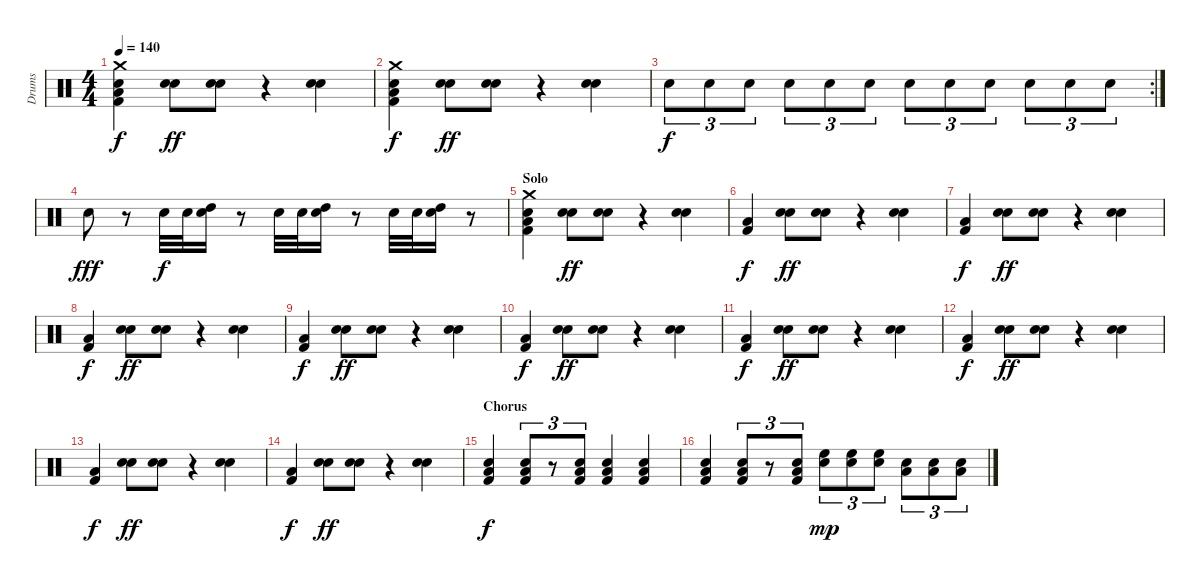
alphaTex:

\track ("Drums" "Drums") {instrument percussion}
\staff {score}
\articulation defaults
\ts (4 4)
\tempo 140
\clef neutral
\ks c
("Kick (hit) 2" "Snare (hit) 2" "Low Floor Tom (hit)" "Crash medium (hit)").4{dy f} ("Snare (hit) 2" "Hand Clap (hit)").8{dy ff} ("Snare (hit) 2" "Hand Clap (hit)").8 r.4 ("Snare (hit) 2" "Hand Clap (hit)").4 |
("Kick (hit) 2" "Snare (hit) 2" "Low Floor Tom (hit)" "Crash medium (hit)").4{dy f} ("Snare (hit) 2" "Hand Clap (hit)").8{dy ff} ("Snare (hit) 2" "Hand Clap (hit)").8 r.4 ("Snare (hit) 2" "Hand Clap (hit)").4 |
\rc 2 "Snare (hit) 2".8{tu (3 2) dy f} "Snare (hit) 2".8{tu (3 2)} "Snare (hit) 2".8{tu (3 2)} "Snare (hit) 2".8{tu (3 2)} "Snare (hit) 2".8{tu (3 2)} "Snare (hit) 2".8{tu (3 2)} "Snare (hit) 2".8{tu (3 2)} "Snare (hit) 2".8{tu (3 2)} "Snare (hit) 2".8{tu (3 2)} "Snare (hit) 2".8{tu (3 2)} "Snare (hit) 2".8{tu (3 2)} "Snare (hit) 2".8{tu (3 2)}
|
"Snare (hit) 2".8{dy fff} r.8 "Snare (hit) 2".32{dy f} "Snare (hit) 2".32 ("Snare (hit) 2" "High Tom (hit)").16 r.8 "Snare (hit) 2".32 "Snare (hit) 2".32 ("Snare (hit) 2" "High Tom (hit)").16 r.8 "Snare (hit) 2".32 "Snare (hit) 2".32 ("Snare (hit) 2" "High Tom (hit)").16 r.8 |
\section ("" "Solo")
("Kick (hit) 2" "Snare (hit) 2" "Low Floor Tom (hit)" "Crash medium (hit)").4 ("Snare (hit) 2" "Hand Clap (hit)").8{dy ff} ("Snare (hit) 2" "Hand Clap (hit)").8 r.4 ("Snare (hit) 2" "Hand Clap (hit)").4 |
("Kick (hit) 2" "Low Floor Tom (hit)").4{dy f} ("Snare (hit) 2" "Hand Clap (hit)").8{dy ff} ("Snare (hit) 2" "Hand Clap (hit)").8 r.4 ("Snare (hit) 2" "Hand Clap (hit)").4 |
("Kick (hit) 2" "Low Floor Tom (hit)").4{dy f} ("Snare (hit) 2" "Hand Clap (hit)").8{dy ff} ("Snare (hit) 2" "Hand Clap (hit)").8 r.4 ("Snare (hit) 2" "Hand Clap (hit)").4 |
("Kick (hit) 2" "Low Floor Tom (hit)").4{dy f} ("Snare (hit) 2" "Hand Clap (hit)").8{dy ff} ("Snare (hit) 2" "Hand Clap (hit)").8 r.4 ("Snare (hit) 2" "Hand Clap (hit)").4 |
("Kick (hit) 2" "Low Floor Tom (hit)").4{dy f} ("Snare (hit) 2" "Hand Clap (hit)").8{dy ff} ("Snare (hit) 2" "Hand Clap (hit)").8 r.4 ("Snare (hit) 2" "Hand Clap (hit)").4 |
("Kick (hit) 2" "Low Floor Tom (hit)").4{dy f} ("Snare (hit) 2" "Hand Clap (hit)").8{dy ff} ("Snare (hit) 2" "Hand Clap (hit)").8 r.4 ("Snare (hit) 2" "Hand Clap (hit)").4 |
("Kick (hit) 2" "Low Floor Tom (hit)").4{dy f} ("Snare (hit) 2" "Hand Clap (hit)").8{dy ff} ("Snare (hit) 2" "Hand Clap (hit)").8 r.4 ("Snare (hit) 2" "Hand Clap (hit)").4 |
("Kick (hit) 2" "Low Floor Tom (hit)").4{dy f} ("Snare (hit) 2" "Hand Clap (hit)").8{dy ff} ("Snare (hit) 2" "Hand Clap (hit)").8 r.4 ("Snare (hit) 2" "Hand Clap (hit)").4 |
("Kick (hit) 2" "Low Floor Tom (hit)").4{dy f} ("Snare (hit) 2" "Hand Clap (hit)").8{dy ff} ("Snare (hit) 2" "Hand Clap (hit)").8 r.4 ("Snare (hit) 2" "Hand Clap (hit)").4 |
("Kick (hit) 2" "Low Floor Tom (hit)").4{dy f} ("Snare (hit) 2" "Hand Clap (hit)").8{dy ff} ("Snare (hit) 2" "Hand Clap (hit)").8 r.4 ("Snare (hit) 2" "Hand Clap (hit)").4 |
\section ("" "Chorus")
("Kick (hit) 2" "Snare (hit) 2" "Low Floor Tom (hit)").4{dy f} ("Kick (hit) 2" "Snare (hit) 2" "Low Floor Tom (hit)").8{tu (3 2)} r.8{tu (3 2)} ("Kick (hit) 2" "Snare (hit) 2" "Low Floor Tom (hit)").8{tu (3 2)} ("Kick (hit) 2" "Snare (hit) 2" "Low Floor Tom (hit)").4 ("Kick (hit) 2" "Snare (hit) 2" "Low Floor Tom (hit)").4 |
("Kick (hit) 2" "Snare (hit) 2" "Low Floor Tom (hit)").4 ("Kick (hit) 2" "Snare (hit) 2" "Low Floor Tom (hit)").8{tu (3 2)} r.8{tu (3 2)} ("Kick (hit) 2" "Snare (hit) 2" "Low Floor Tom (hit)").8{tu (3 2)} ("Snare (hit) 2" "High Floor Tom (hit)").8{tu (3 2) dy mp} ("Snare (hit) 2" "High Floor Tom (hit)").8{tu (3 2)} ("Snare (hit) 2" "High Floor Tom (hit)").8{tu (3 2)} ("Snare (hit) 2" "Low Tom (hit)").8{tu (3 2)} ("Snare (hit) 2" "Low Tom (hit)").8{tu (3 2)} ("Snare (hit) 2" "Low Tom (hit)").8{tu (3 2)}
